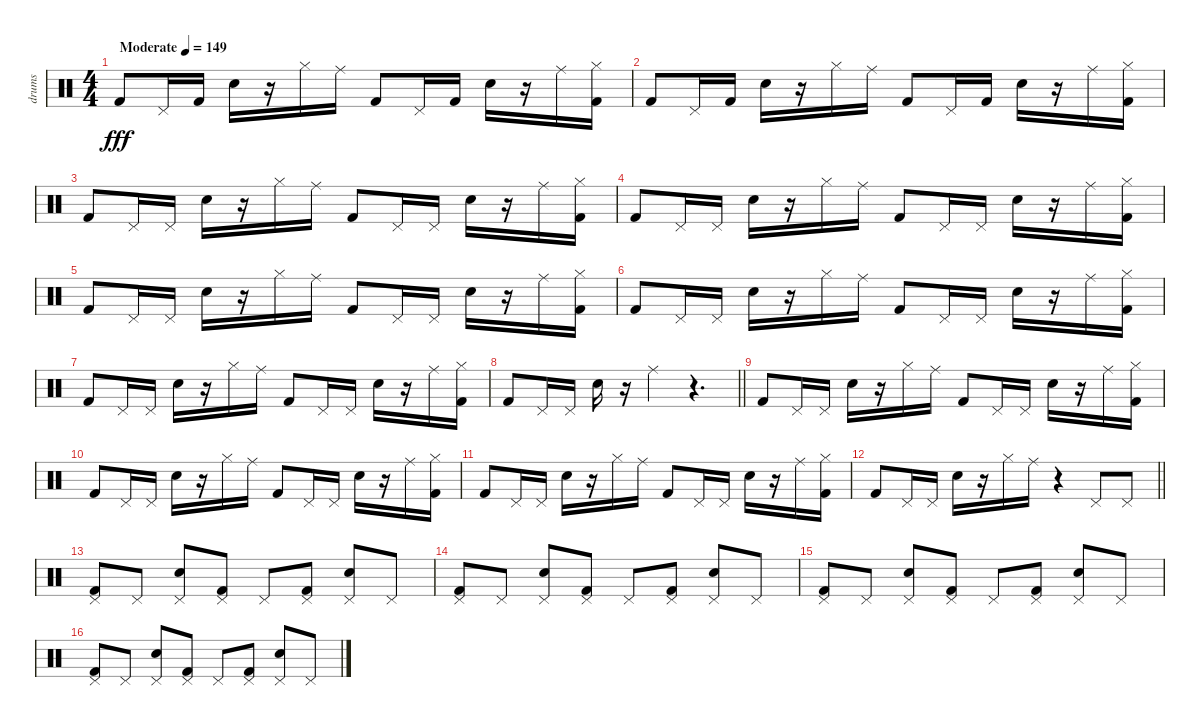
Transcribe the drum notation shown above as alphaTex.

\track ("drums" "drums") {instrument percussion}
\staff {score}
\articulation defaults
\ts (4 4)
\tempo (149 "Moderate")
\clef neutral
\ks c "Kick (hit) 2".8{dy fff} "Pedal Hi-Hat (hit)".16 "Kick (hit) 2".16 "Snare (hit) 2".16
r.16 "Hi-Hat (closed)".16 "Ride (middle)".16 "Kick (hit) 2".8 "Pedal Hi-Hat (hit)".16 "Kick (hit) 2".16 "Snare (hit) 2".16 r.16 "Ride (middle)".16 ("Hi-Hat (closed)" "Kick (hit) 2").16 |
"Kick (hit) 2".8 "Pedal Hi-Hat (hit)".16 "Kick (hit) 2".16 "Snare (hit) 2".16 r.16 "Hi-Hat (closed)".16 "Ride (middle)".16 "Kick (hit) 2".8 "Pedal Hi-Hat (hit)".16 "Kick (hit) 2".16 "Snare (hit) 2".16 r.16 "Ride (middle)".16 ("Hi-Hat (closed)" "Kick (hit) 2").16 |
"Kick (hit) 2".8 "Pedal Hi-Hat (hit)".16 "Pedal Hi-Hat (hit)".16 "Snare (hit) 2".16 r.16 "Hi-Hat (closed)".16 "Ride (middle)".16 "Kick (hit) 2".8 "Pedal Hi-Hat (hit)".16 "Pedal Hi-Hat (hit)".16 "Snare (hit) 2".16 r.16 "Ride (middle)".16 ("Hi-Hat (closed)" "Kick (hit) 2").16 |
"Kick (hit) 2".8 "Pedal Hi-Hat (hit)".16 "Pedal Hi-Hat (hit)".16 "Snare (hit) 2".16 r.16 "Hi-Hat (closed)".16 "Ride (middle)".16 "Kick (hit) 2".8 "Pedal Hi-Hat (hit)".16 "Pedal Hi-Hat (hit)".16 "Snare (hit) 2".16 r.16 "Ride (middle)".16 ("Hi-Hat (closed)" "Kick (hit) 2").16 |
"Kick (hit) 2".8 "Pedal Hi-Hat (hit)".16 "Pedal Hi-Hat (hit)".16 "Snare (hit) 2".16 r.16 "Hi-Hat (closed)".16 "Ride (middle)".16 "Kick (hit) 2".8 "Pedal Hi-Hat (hit)".16 "Pedal Hi-Hat (hit)".16 "Snare (hit) 2".16 r.16 "Ride (middle)".16 ("Hi-Hat (closed)" "Kick (hit) 2").16 |
"Kick (hit) 2".8 "Pedal Hi-Hat (hit)".16 "Pedal Hi-Hat (hit)".16 "Snare (hit) 2".16 r.16 "Hi-Hat (closed)".16 "Ride (middle)".16 "Kick (hit) 2".8 "Pedal Hi-Hat (hit)".16 "Pedal Hi-Hat (hit)".16 "Snare (hit) 2".16 r.16 "Ride (middle)".16 ("Hi-Hat (closed)" "Kick (hit) 2").16 |
"Kick (hit) 2".8 "Pedal Hi-Hat (hit)".16 "Pedal Hi-Hat (hit)".16 "Snare (hit) 2".16 r.16 "Hi-Hat (closed)".16 "Ride (middle)".16 "Kick (hit) 2".8 "Pedal Hi-Hat (hit)".16 "Pedal Hi-Hat (hit)".16 "Snare (hit) 2".16 r.16 "Ride (middle)".16 ("Hi-Hat (closed)" "Kick (hit) 2").16 |
\barLineRight lightlight "Kick (hit) 2".8 "Pedal Hi-Hat (hit)".16 "Pedal Hi-Hat (hit)".16 "Snare (hit) 2".16
r.16 "Ride (middle)".4 r.4{d} |
"Kick (hit) 2".8 "Pedal Hi-Hat (hit)".16 "Pedal Hi-Hat (hit)".16 "Snare (hit) 2".16 r.16 "Hi-Hat (closed)".16 "Ride (middle)".16 "Kick (hit) 2".8 "Pedal Hi-Hat (hit)".16 "Pedal Hi-Hat (hit)".16 "Snare (hit) 2".16 r.16 "Ride (middle)".16 ("Hi-Hat (closed)" "Kick (hit) 2").16 |
"Kick (hit) 2".8 "Pedal Hi-Hat (hit)".16 "Pedal Hi-Hat (hit)".16 "Snare (hit) 2".16 r.16 "Hi-Hat (closed)".16 "Ride (middle)".16 "Kick (hit) 2".8 "Pedal Hi-Hat (hit)".16 "Pedal Hi-Hat (hit)".16 "Snare (hit) 2".16 r.16 "Ride (middle)".16 ("Hi-Hat (closed)" "Kick (hit) 2").16 |
"Kick (hit) 2".8 "Pedal Hi-Hat (hit)".16 "Pedal Hi-Hat (hit)".16 "Snare (hit) 2".16 r.16 "Hi-Hat (closed)".16 "Ride (middle)".16 "Kick (hit) 2".8 "Pedal Hi-Hat (hit)".16 "Pedal Hi-Hat (hit)".16 "Snare (hit) 2".16 r.16 "Ride (middle)".16 ("Hi-Hat (closed)" "Kick (hit) 2").16 |
\barLineRight lightlight "Kick (hit) 2".8 "Pedal Hi-Hat (hit)".16 "Pedal Hi-Hat (hit)".16 "Snare (hit) 2".16
r.16 "Hi-Hat (closed)".16 "Ride (middle)".16 r.4 "Pedal Hi-Hat (hit)".8 "Pedal Hi-Hat (hit)".8 |
\section ("" "")
("Pedal Hi-Hat (hit)" "Kick (hit) 2").8 "Pedal Hi-Hat (hit)".8 ("Pedal Hi-Hat (hit)" "Snare (hit) 2").8 ("Pedal Hi-Hat (hit)" "Kick (hit) 2").8 "Pedal Hi-Hat (hit)".8 ("Pedal Hi-Hat (hit)" "Kick (hit) 2").8 ("Pedal Hi-Hat (hit)" "Snare (hit) 2").8 "Pedal Hi-Hat (hit)".8 |
("Pedal Hi-Hat (hit)" "Kick (hit) 2").8 "Pedal Hi-Hat (hit)".8 ("Pedal Hi-Hat (hit)" "Snare (hit) 2").8 ("Pedal Hi-Hat (hit)" "Kick (hit) 2").8 "Pedal Hi-Hat (hit)".8 ("Pedal Hi-Hat (hit)" "Kick (hit) 2").8 ("Pedal Hi-Hat (hit)" "Snare (hit) 2").8 "Pedal Hi-Hat (hit)".8 |
("Pedal Hi-Hat (hit)" "Kick (hit) 2").8 "Pedal Hi-Hat (hit)".8 ("Pedal Hi-Hat (hit)" "Snare (hit) 2").8 ("Pedal Hi-Hat (hit)" "Kick (hit) 2").8 "Pedal Hi-Hat (hit)".8 ("Pedal Hi-Hat (hit)" "Kick (hit) 2").8 ("Pedal Hi-Hat (hit)" "Snare (hit) 2").8 "Pedal Hi-Hat (hit)".8 |
("Pedal Hi-Hat (hit)" "Kick (hit) 2").8 "Pedal Hi-Hat (hit)".8 ("Pedal Hi-Hat (hit)" "Snare (hit) 2").8 ("Pedal Hi-Hat (hit)" "Kick (hit) 2").8 "Pedal Hi-Hat (hit)".8 ("Pedal Hi-Hat (hit)" "Kick (hit) 2").8 ("Pedal Hi-Hat (hit)" "Snare (hit) 2").8 "Pedal Hi-Hat (hit)".8
